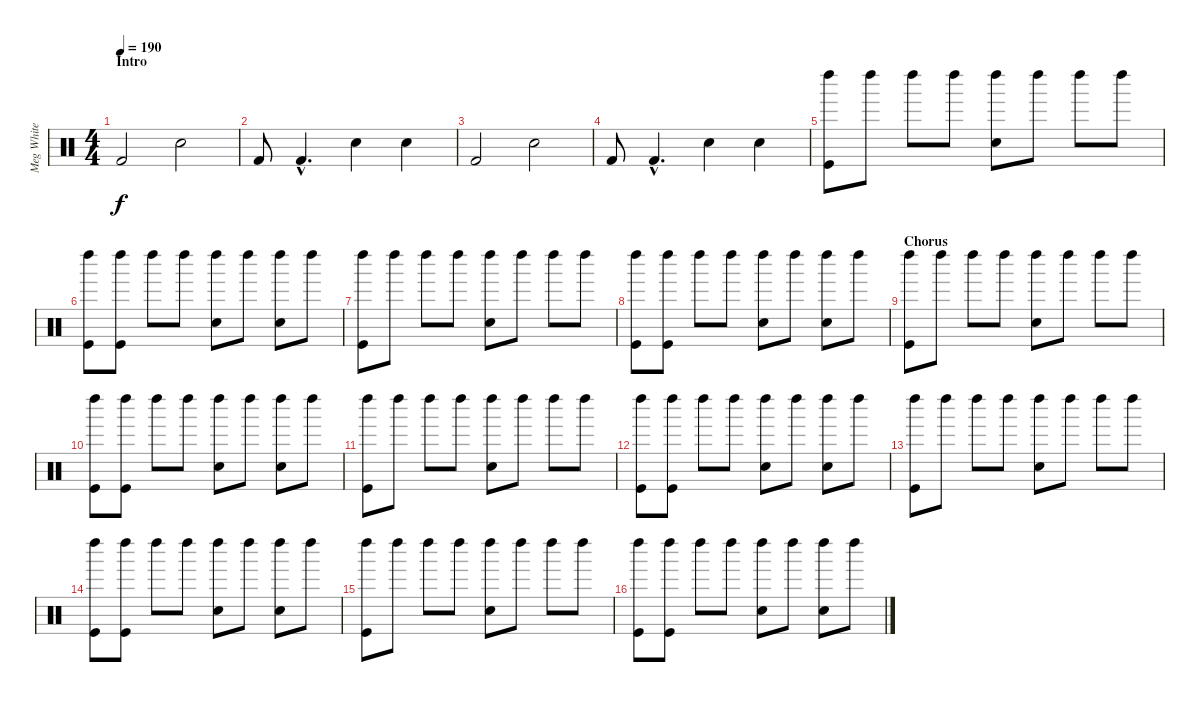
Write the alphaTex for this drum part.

\track ("Meg White" "Meg White") {instrument percussion}
\staff {score}
\articulation defaults
\ts (4 4)
\section ("" "Intro")
\tempo 190
\clef neutral
\ks c "Kick (hit) 2".2{dy f} "Snare (hit) 2".2
|
"Kick (hit) 2".8 "Kick (hit) 2"{hac}.4{d} "Snare (hit) 2".4 "Snare (hit) 2".4 |
"Kick (hit) 2".2 "Snare (hit) 2".2 |
"Kick (hit) 2".8 "Kick (hit) 2"{hac}.4{d} "Snare (hit) 2".4 "Snare (hit) 2".4 |
("Kick (hit)" "Left Maraca (hit)").8 "Left Maraca (hit)".8 "Left Maraca (hit)".8 "Left Maraca (hit)".8 ("Snare (hit) 2" "Left Maraca (hit)").8 "Left Maraca (hit)".8 "Left Maraca (hit)".8 "Left Maraca (hit)".8 |
("Kick (hit)" "Left Maraca (hit)").8 ("Kick (hit)" "Left Maraca (hit)").8 "Left Maraca (hit)".8 "Left Maraca (hit)".8 ("Snare (hit) 2" "Left Maraca (hit)").8 "Left Maraca (hit)".8 ("Snare (hit) 2" "Left Maraca (hit)").8 "Left Maraca (hit)".8 |
("Kick (hit)" "Left Maraca (hit)").8 "Left Maraca (hit)".8 "Left Maraca (hit)".8 "Left Maraca (hit)".8 ("Snare (hit) 2" "Left Maraca (hit)").8 "Left Maraca (hit)".8 "Left Maraca (hit)".8 "Left Maraca (hit)".8 |
("Kick (hit)" "Left Maraca (hit)").8 ("Kick (hit)" "Left Maraca (hit)").8 "Left Maraca (hit)".8 "Left Maraca (hit)".8 ("Snare (hit) 2" "Left Maraca (hit)").8 "Left Maraca (hit)".8 ("Snare (hit) 2" "Left Maraca (hit)").8 "Left Maraca (hit)".8 |
\section ("" "Chorus")
("Kick (hit)" "Left Maraca (hit)").8 "Left Maraca (hit)".8 "Left Maraca (hit)".8 "Left Maraca (hit)".8 ("Snare (hit) 2" "Left Maraca (hit)").8 "Left Maraca (hit)".8 "Left Maraca (hit)".8 "Left Maraca (hit)".8 |
("Kick (hit)" "Left Maraca (hit)").8 ("Kick (hit)" "Left Maraca (hit)").8 "Left Maraca (hit)".8 "Left Maraca (hit)".8 ("Snare (hit) 2" "Left Maraca (hit)").8 "Left Maraca (hit)".8 ("Snare (hit) 2" "Left Maraca (hit)").8 "Left Maraca (hit)".8 |
("Kick (hit)" "Left Maraca (hit)").8 "Left Maraca (hit)".8 "Left Maraca (hit)".8 "Left Maraca (hit)".8 ("Snare (hit) 2" "Left Maraca (hit)").8 "Left Maraca (hit)".8 "Left Maraca (hit)".8 "Left Maraca (hit)".8 |
("Kick (hit)" "Left Maraca (hit)").8 ("Kick (hit)" "Left Maraca (hit)").8 "Left Maraca (hit)".8 "Left Maraca (hit)".8 ("Snare (hit) 2" "Left Maraca (hit)").8 "Left Maraca (hit)".8 ("Snare (hit) 2" "Left Maraca (hit)").8 "Left Maraca (hit)".8 |
("Kick (hit)" "Left Maraca (hit)").8 "Left Maraca (hit)".8 "Left Maraca (hit)".8 "Left Maraca (hit)".8 ("Snare (hit) 2" "Left Maraca (hit)").8 "Left Maraca (hit)".8 "Left Maraca (hit)".8 "Left Maraca (hit)".8 |
("Kick (hit)" "Left Maraca (hit)").8 ("Kick (hit)" "Left Maraca (hit)").8 "Left Maraca (hit)".8 "Left Maraca (hit)".8 ("Snare (hit) 2" "Left Maraca (hit)").8 "Left Maraca (hit)".8 ("Snare (hit) 2" "Left Maraca (hit)").8 "Left Maraca (hit)".8 |
("Kick (hit)" "Left Maraca (hit)").8 "Left Maraca (hit)".8 "Left Maraca (hit)".8 "Left Maraca (hit)".8 ("Snare (hit) 2" "Left Maraca (hit)").8 "Left Maraca (hit)".8 "Left Maraca (hit)".8 "Left Maraca (hit)".8 |
("Kick (hit)" "Left Maraca (hit)").8 ("Kick (hit)" "Left Maraca (hit)").8 "Left Maraca (hit)".8 "Left Maraca (hit)".8 ("Snare (hit) 2" "Left Maraca (hit)").8 "Left Maraca (hit)".8 ("Snare (hit) 2" "Left Maraca (hit)").8 "Left Maraca (hit)".8
